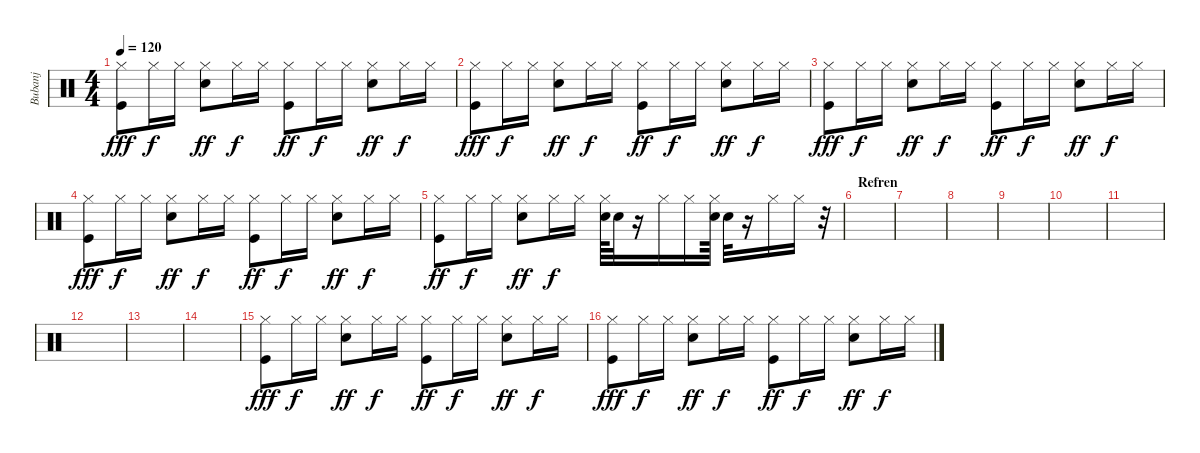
\track ("Bubanj" "Bubanj") {instrument percussion}
\staff {score}
\articulation defaults
\ts (4 4)
\tempo 120
\clef neutral
\ks c
("Kick (hit)" "Hi-Hat (closed)").8{dy fff} "Hi-Hat (closed)".16{dy f} "Hi-Hat (closed)".16 ("Electric Snare (hit)" "Hi-Hat (closed)").8{dy ff} "Hi-Hat (closed)".16{dy f} "Hi-Hat (closed)".16 ("Kick (hit)" "Hi-Hat (closed)").8{dy ff} "Hi-Hat (closed)".16{dy f} "Hi-Hat (closed)".16 ("Electric Snare (hit)" "Hi-Hat (closed)").8{dy ff} "Hi-Hat (closed)".16{dy f} "Hi-Hat (closed)".16 |
("Kick (hit)" "Hi-Hat (closed)").8{dy fff} "Hi-Hat (closed)".16{dy f} "Hi-Hat (closed)".16 ("Electric Snare (hit)" "Hi-Hat (closed)").8{dy ff} "Hi-Hat (closed)".16{dy f} "Hi-Hat (closed)".16 ("Kick (hit)" "Hi-Hat (closed)").8{dy ff} "Hi-Hat (closed)".16{dy f} "Hi-Hat (closed)".16 ("Electric Snare (hit)" "Hi-Hat (closed)").8{dy ff} "Hi-Hat (closed)".16{dy f} "Hi-Hat (closed)".16 |
("Kick (hit)" "Hi-Hat (closed)").8{dy fff} "Hi-Hat (closed)".16{dy f} "Hi-Hat (closed)".16 ("Electric Snare (hit)" "Hi-Hat (closed)").8{dy ff} "Hi-Hat (closed)".16{dy f} "Hi-Hat (closed)".16 ("Kick (hit)" "Hi-Hat (closed)").8{dy ff} "Hi-Hat (closed)".16{dy f} "Hi-Hat (closed)".16 ("Electric Snare (hit)" "Hi-Hat (closed)").8{dy ff} "Hi-Hat (closed)".16{dy f} "Hi-Hat (closed)".16 |
("Kick (hit)" "Hi-Hat (closed)").8{dy fff} "Hi-Hat (closed)".16{dy f} "Hi-Hat (closed)".16 ("Electric Snare (hit)" "Hi-Hat (closed)").8{dy ff} "Hi-Hat (closed)".16{dy f} "Hi-Hat (closed)".16 ("Kick (hit)" "Hi-Hat (closed)").8{dy ff} "Hi-Hat (closed)".16{dy f} "Hi-Hat (closed)".16 ("Electric Snare (hit)" "Hi-Hat (closed)").8{dy ff} "Hi-Hat (closed)".16{dy f} "Hi-Hat (closed)".16 |
("Kick (hit)" "Hi-Hat (closed)").8{dy ff} "Hi-Hat (closed)".16{dy f} "Hi-Hat (closed)".16 ("Electric Snare (hit)" "Hi-Hat (closed)").8{dy ff} "Hi-Hat (closed)".16{dy f} "Hi-Hat (closed)".16 ("Electric Snare (hit)" "Hi-Hat (closed)").64 "Electric Snare (hit)".32 r.16 "Hi-Hat (closed)".16 "Hi-Hat (closed)".16 ("Electric Snare (hit)" "Hi-Hat (closed)").64 "Electric Snare (hit)".32 r.16 "Hi-Hat (closed)".16 "Hi-Hat (closed)".16 r.32 |
\section ("" "Refren")
|
|
|
|
|
|
|
|
|
("Kick (hit)" "Hi-Hat (closed)").8{dy fff} "Hi-Hat (closed)".16{dy f} "Hi-Hat (closed)".16 ("Electric Snare (hit)" "Hi-Hat (closed)").8{dy ff} "Hi-Hat (closed)".16{dy f} "Hi-Hat (closed)".16 ("Kick (hit)" "Hi-Hat (closed)").8{dy ff} "Hi-Hat (closed)".16{dy f} "Hi-Hat (closed)".16 ("Electric Snare (hit)" "Hi-Hat (closed)").8{dy ff} "Hi-Hat (closed)".16{dy f} "Hi-Hat (closed)".16 |
("Kick (hit)" "Hi-Hat (closed)").8{dy fff} "Hi-Hat (closed)".16{dy f} "Hi-Hat (closed)".16 ("Electric Snare (hit)" "Hi-Hat (closed)").8{dy ff} "Hi-Hat (closed)".16{dy f} "Hi-Hat (closed)".16 ("Kick (hit)" "Hi-Hat (closed)").8{dy ff} "Hi-Hat (closed)".16{dy f} "Hi-Hat (closed)".16 ("Electric Snare (hit)" "Hi-Hat (closed)").8{dy ff} "Hi-Hat (closed)".16{dy f} "Hi-Hat (closed)".16
